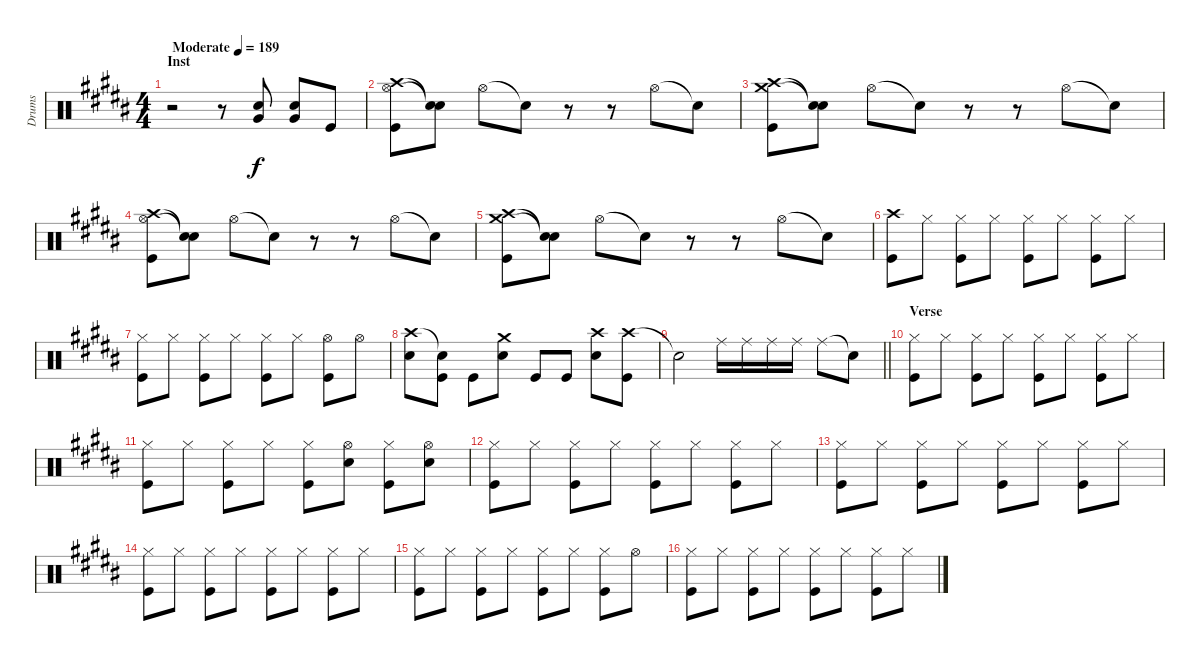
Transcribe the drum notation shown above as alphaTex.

\track ("Drums" "Drums") {instrument percussion}
\staff {score}
\articulation defaults
\ts (4 4)
\section ("" "Inst")
\tempo (189 "Moderate")
\clef neutral
\ks b
r.2{dy f} r.8 ("Snare (hit) 2" "Very Low Tom (hit)").8 ("Snare (hit) 2" "Very Low Tom (hit)").8 "Kick (hit)".8 |
("Crash high (hit)" "Hi-Hat (open)" "Kick (hit)").8 ("Snare (hit)"{t} "Snare (hit)"{t}).8 "Hi-Hat (open)".8 "Snare (hit)"{t}.8 r.8 r.8 "Hi-Hat (open)".8 "Snare (hit)"{t}.8 |
("Crash high (hit)" "Crash medium (hit)" "Kick (hit)").8 ("Snare (hit)"{t} "Snare (hit)"{t}).8 "Hi-Hat (open)".8 "Snare (hit)"{t}.8 r.8 r.8 "Hi-Hat (open)".8 "Snare (hit)"{t}.8 |
("Crash high (hit)" "Hi-Hat (open)" "Kick (hit)").8 ("Snare (hit)"{t} "Snare (hit)"{t}).8 "Hi-Hat (open)".8 "Snare (hit)"{t}.8 r.8 r.8 "Hi-Hat (open)".8 "Snare (hit)"{t}.8 |
("Crash high (hit)" "Crash medium (hit)" "Kick (hit)").8 ("Snare (hit)"{t} "Snare (hit)"{t}).8 "Hi-Hat (open)".8 "Snare (hit)"{t}.8 r.8 r.8 "Hi-Hat (open)".8 "Snare (hit)"{t}.8 |
("Crash high (hit)" "Kick (hit)").8 "Hi-Hat (closed)".8 ("Hi-Hat (closed)" "Kick (hit)").8 "Hi-Hat (closed)".8 ("Hi-Hat (closed)" "Kick (hit)").8 "Hi-Hat (closed)".8 ("Hi-Hat (closed)" "Kick (hit)").8 "Hi-Hat (closed)".8 |
("Hi-Hat (closed)" "Kick (hit)").8 "Hi-Hat (closed)".8 ("Hi-Hat (closed)" "Kick (hit)").8 "Hi-Hat (closed)".8 ("Hi-Hat (closed)" "Kick (hit)").8 "Hi-Hat (closed)".8 ("Hi-Hat (open)" "Kick (hit)").8 "Hi-Hat (open)".8 |
("Crash high (hit)" "Snare (hit) 2").8 ("Snare (hit)"{t} "Kick (hit)").8 "Kick (hit)".8 ("Crash medium (hit)" "Snare (hit) 2").8 "Kick (hit)".8 "Kick (hit)".8 ("Crash high (hit)" "Snare (hit) 2").8 ("Crash high (hit)" "Kick (hit)").8 |
\barLineRight lightlight "Snare (hit)"{t}.2 "Ride (middle)".16 "Ride (middle)".16 "Ride (middle)".16 "Ride (middle)".16 "Ride (middle)".8 "Snare (hit)"{t}.8
|
\section ("" "Verse")
("Hi-Hat (closed)" "Kick (hit)").8 "Hi-Hat (closed)".8 ("Hi-Hat (closed)" "Kick (hit)").8 "Hi-Hat (closed)".8 ("Hi-Hat (closed)" "Kick (hit)").8 "Hi-Hat (closed)".8 ("Hi-Hat (closed)" "Kick (hit)").8 "Hi-Hat (closed)".8 |
("Hi-Hat (closed)" "Kick (hit)").8 "Hi-Hat (closed)".8 ("Hi-Hat (closed)" "Kick (hit)").8 "Hi-Hat (closed)".8 ("Hi-Hat (closed)" "Kick (hit)").8 ("Hi-Hat (open)" "Snare (hit) 2").8 ("Hi-Hat (closed)" "Kick (hit)").8 ("Hi-Hat (open)" "Snare (hit) 2").8 |
("Hi-Hat (closed)" "Kick (hit)").8 "Hi-Hat (closed)".8 ("Hi-Hat (closed)" "Kick (hit)").8 "Hi-Hat (closed)".8 ("Hi-Hat (closed)" "Kick (hit)").8 "Hi-Hat (closed)".8 ("Hi-Hat (closed)" "Kick (hit)").8 "Hi-Hat (closed)".8 |
("Hi-Hat (closed)" "Kick (hit)").8 "Hi-Hat (closed)".8 ("Hi-Hat (closed)" "Kick (hit)").8 "Hi-Hat (closed)".8 ("Hi-Hat (closed)" "Kick (hit)").8 "Hi-Hat (closed)".8 ("Hi-Hat (closed)" "Kick (hit)").8 "Hi-Hat (closed)".8 |
("Hi-Hat (closed)" "Kick (hit)").8 "Hi-Hat (closed)".8 ("Hi-Hat (closed)" "Kick (hit)").8 "Hi-Hat (closed)".8 ("Hi-Hat (closed)" "Kick (hit)").8 "Hi-Hat (closed)".8 ("Hi-Hat (closed)" "Kick (hit)").8 "Hi-Hat (closed)".8 |
("Hi-Hat (closed)" "Kick (hit)").8 "Hi-Hat (closed)".8 ("Hi-Hat (closed)" "Kick (hit)").8 "Hi-Hat (closed)".8 ("Hi-Hat (closed)" "Kick (hit)").8 "Hi-Hat (closed)".8 ("Hi-Hat (closed)" "Kick (hit)").8 "Hi-Hat (open)".8 |
("Hi-Hat (closed)" "Kick (hit)").8 "Hi-Hat (closed)".8 ("Hi-Hat (closed)" "Kick (hit)").8 "Hi-Hat (closed)".8 ("Hi-Hat (closed)" "Kick (hit)").8 "Hi-Hat (closed)".8 ("Hi-Hat (closed)" "Kick (hit)").8 "Hi-Hat (closed)".8
